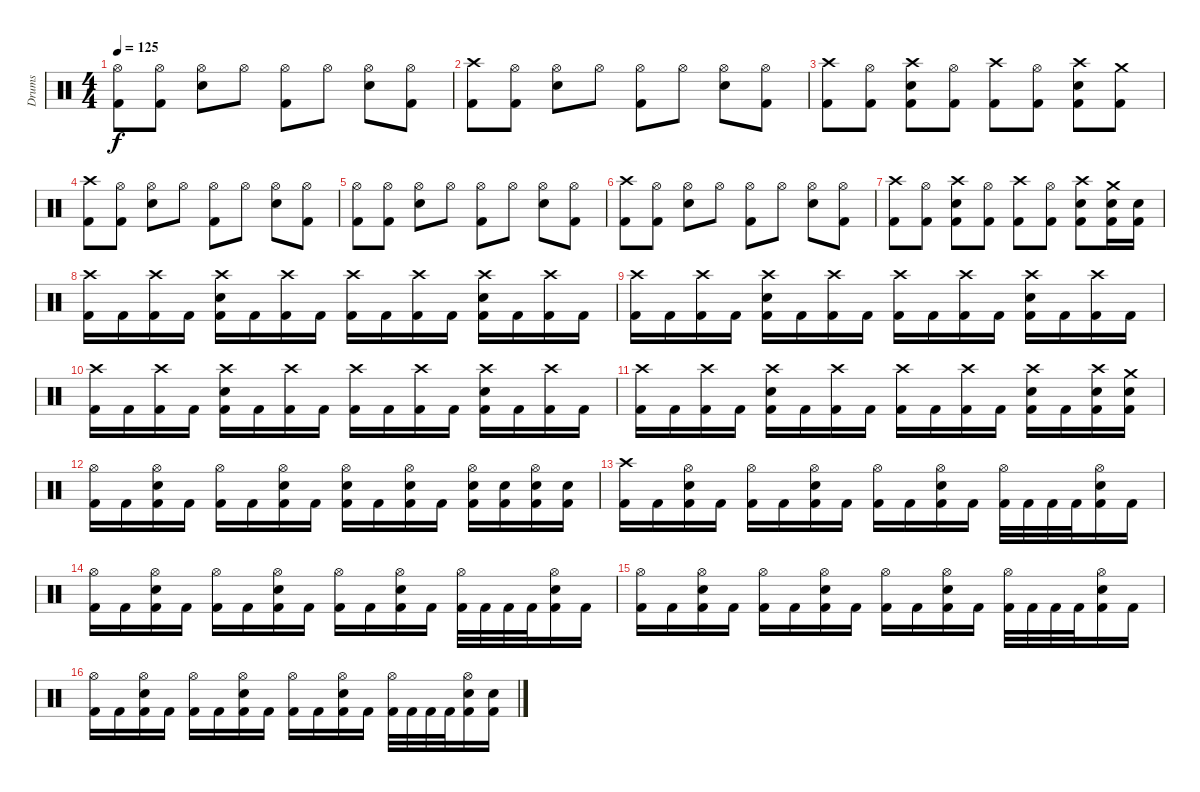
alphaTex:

\track ("Drums" "Drums") {instrument percussion}
\staff {score}
\articulation defaults
\ts (4 4)
\tempo 125
\clef neutral
\ks c
("Hi-Hat (open)" "Kick (hit) 2").8{dy f} ("Hi-Hat (open)" "Kick (hit) 2").8 ("Hi-Hat (open)" "Electric Snare (hit)").8 "Hi-Hat (open)".8 ("Hi-Hat (open)" "Kick (hit) 2").8 "Hi-Hat (open)".8 ("Hi-Hat (open)" "Electric Snare (hit)").8 ("Hi-Hat (open)" "Kick (hit) 2").8 |
("Crash high (hit)" "Kick (hit) 2").8 ("Hi-Hat (open)" "Kick (hit) 2").8 ("Hi-Hat (open)" "Electric Snare (hit)").8 "Hi-Hat (open)".8 ("Hi-Hat (open)" "Kick (hit) 2").8 "Hi-Hat (open)".8 ("Hi-Hat (open)" "Electric Snare (hit)").8 ("Hi-Hat (open)" "Kick (hit) 2").8 |
("Crash high (hit)" "Kick (hit) 2").8 ("Hi-Hat (open)" "Kick (hit) 2").8 ("Crash high (hit)" "Electric Snare (hit)" "Kick (hit) 2").8 ("Hi-Hat (open)" "Kick (hit) 2").8 ("Crash high (hit)" "Kick (hit) 2").8 ("Hi-Hat (open)" "Kick (hit) 2").8 ("Crash high (hit)" "Electric Snare (hit)" "Kick (hit) 2").8 ("Crash medium (hit)" "Kick (hit) 2").8 |
("Crash high (hit)" "Kick (hit) 2").8 ("Hi-Hat (open)" "Kick (hit) 2").8 ("Hi-Hat (open)" "Electric Snare (hit)").8 "Hi-Hat (open)".8 ("Hi-Hat (open)" "Kick (hit) 2").8 "Hi-Hat (open)".8 ("Hi-Hat (open)" "Electric Snare (hit)").8 ("Hi-Hat (open)" "Kick (hit) 2").8 |
("Hi-Hat (open)" "Kick (hit) 2").8 ("Hi-Hat (open)" "Kick (hit) 2").8 ("Hi-Hat (open)" "Electric Snare (hit)").8 "Hi-Hat (open)".8 ("Hi-Hat (open)" "Kick (hit) 2").8 "Hi-Hat (open)".8 ("Hi-Hat (open)" "Electric Snare (hit)").8 ("Hi-Hat (open)" "Kick (hit) 2").8 |
("Crash high (hit)" "Kick (hit) 2").8 ("Hi-Hat (open)" "Kick (hit) 2").8 ("Hi-Hat (open)" "Electric Snare (hit)").8 "Hi-Hat (open)".8 ("Hi-Hat (open)" "Kick (hit) 2").8 "Hi-Hat (open)".8 ("Hi-Hat (open)" "Electric Snare (hit)").8 ("Hi-Hat (open)" "Kick (hit) 2").8 |
("Crash high (hit)" "Kick (hit) 2").8 ("Hi-Hat (open)" "Kick (hit) 2").8 ("Crash high (hit)" "Electric Snare (hit)" "Kick (hit) 2").8 ("Hi-Hat (open)" "Kick (hit) 2").8 ("Crash high (hit)" "Kick (hit) 2").8 ("Hi-Hat (open)" "Kick (hit) 2").8 ("Crash high (hit)" "Electric Snare (hit)" "Kick (hit) 2").8 ("Crash medium (hit)" "Electric Snare (hit)" "Kick (hit) 2").16 ("Electric Snare (hit)" "Kick (hit) 2").16 |
("Crash high (hit)" "Kick (hit) 2").16 "Kick (hit) 2".16 ("Crash high (hit)" "Kick (hit) 2").16 "Kick (hit) 2".16 ("Crash high (hit)" "Electric Snare (hit)" "Kick (hit) 2").16 "Kick (hit) 2".16 ("Crash high (hit)" "Kick (hit) 2").16 "Kick (hit) 2".16 ("Crash high (hit)" "Kick (hit) 2").16 "Kick (hit) 2".16 ("Crash high (hit)" "Kick (hit) 2").16 "Kick (hit) 2".16 ("Crash high (hit)" "Electric Snare (hit)" "Kick (hit) 2").16 "Kick (hit) 2".16 ("Crash high (hit)" "Kick (hit) 2").16 "Kick (hit) 2".16 |
("Crash high (hit)" "Kick (hit) 2").16 "Kick (hit) 2".16 ("Crash high (hit)" "Kick (hit) 2").16 "Kick (hit) 2".16 ("Crash high (hit)" "Electric Snare (hit)" "Kick (hit) 2").16 "Kick (hit) 2".16 ("Crash high (hit)" "Kick (hit) 2").16 "Kick (hit) 2".16 ("Crash high (hit)" "Kick (hit) 2").16 "Kick (hit) 2".16 ("Crash high (hit)" "Kick (hit) 2").16 "Kick (hit) 2".16 ("Crash high (hit)" "Electric Snare (hit)" "Kick (hit) 2").16 "Kick (hit) 2".16 ("Crash high (hit)" "Kick (hit) 2").16 "Kick (hit) 2".16 |
("Crash high (hit)" "Kick (hit) 2").16 "Kick (hit) 2".16 ("Crash high (hit)" "Kick (hit) 2").16 "Kick (hit) 2".16 ("Crash high (hit)" "Electric Snare (hit)" "Kick (hit) 2").16 "Kick (hit) 2".16 ("Crash high (hit)" "Kick (hit) 2").16 "Kick (hit) 2".16 ("Crash high (hit)" "Kick (hit) 2").16 "Kick (hit) 2".16 ("Crash high (hit)" "Kick (hit) 2").16 "Kick (hit) 2".16 ("Crash high (hit)" "Electric Snare (hit)" "Kick (hit) 2").16 "Kick (hit) 2".16 ("Crash high (hit)" "Kick (hit) 2").16 "Kick (hit) 2".16 |
("Crash high (hit)" "Kick (hit) 2").16 "Kick (hit) 2".16 ("Crash high (hit)" "Kick (hit) 2").16 "Kick (hit) 2".16 ("Crash high (hit)" "Electric Snare (hit)" "Kick (hit) 2").16 "Kick (hit) 2".16 ("Crash high (hit)" "Kick (hit) 2").16 "Kick (hit) 2".16 ("Crash high (hit)" "Kick (hit) 2").16 "Kick (hit) 2".16 ("Crash high (hit)" "Kick (hit) 2").16 "Kick (hit) 2".16 ("Crash high (hit)" "Electric Snare (hit)" "Kick (hit) 2").16 "Kick (hit) 2".16 ("Crash high (hit)" "Electric Snare (hit)" "Kick (hit) 2").16 ("Crash medium (hit)" "Electric Snare (hit)" "Kick (hit) 2").16 |
("Hi-Hat (open)" "Kick (hit) 2").16 "Kick (hit) 2".16 ("Hi-Hat (open)" "Electric Snare (hit)" "Kick (hit) 2").16 "Kick (hit) 2".16 ("Hi-Hat (open)" "Kick (hit) 2").16 "Kick (hit) 2".16 ("Hi-Hat (open)" "Electric Snare (hit)" "Kick (hit) 2").16 "Kick (hit) 2".16 ("Hi-Hat (open)" "Electric Snare (hit)" "Kick (hit) 2").16 "Kick (hit) 2".16 ("Hi-Hat (open)" "Electric Snare (hit)" "Kick (hit) 2").16 "Kick (hit) 2".16 ("Hi-Hat (open)" "Electric Snare (hit)" "Kick (hit) 2").16 ("Electric Snare (hit)" "Kick (hit) 2").16 ("Hi-Hat (open)" "Electric Snare (hit)" "Kick (hit) 2").16 ("Electric Snare (hit)" "Kick (hit) 2").16 |
("Crash high (hit)" "Kick (hit) 2").16 "Kick (hit) 2".16 ("Hi-Hat (open)" "Electric Snare (hit)" "Kick (hit) 2").16 "Kick (hit) 2".16 ("Hi-Hat (open)" "Kick (hit) 2").16 "Kick (hit) 2".16 ("Hi-Hat (open)" "Electric Snare (hit)" "Kick (hit) 2").16 "Kick (hit) 2".16 ("Hi-Hat (open)" "Kick (hit) 2").16 "Kick (hit) 2".16 ("Hi-Hat (open)" "Electric Snare (hit)" "Kick (hit) 2").16 "Kick (hit) 2".16 ("Hi-Hat (open)" "Kick (hit) 2").32 "Kick (hit) 2".32 "Kick (hit) 2".32 "Kick (hit) 2".32 ("Hi-Hat (open)" "Electric Snare (hit)" "Kick (hit) 2").16 "Kick (hit) 2".16 |
("Hi-Hat (open)" "Kick (hit) 2").16 "Kick (hit) 2".16 ("Hi-Hat (open)" "Electric Snare (hit)" "Kick (hit) 2").16 "Kick (hit) 2".16 ("Hi-Hat (open)" "Kick (hit) 2").16 "Kick (hit) 2".16 ("Hi-Hat (open)" "Electric Snare (hit)" "Kick (hit) 2").16 "Kick (hit) 2".16 ("Hi-Hat (open)" "Kick (hit) 2").16 "Kick (hit) 2".16 ("Hi-Hat (open)" "Electric Snare (hit)" "Kick (hit) 2").16 "Kick (hit) 2".16 ("Hi-Hat (open)" "Kick (hit) 2").32 "Kick (hit) 2".32 "Kick (hit) 2".32 "Kick (hit) 2".32 ("Hi-Hat (open)" "Electric Snare (hit)" "Kick (hit) 2").16 "Kick (hit) 2".16 |
("Hi-Hat (open)" "Kick (hit) 2").16 "Kick (hit) 2".16 ("Hi-Hat (open)" "Electric Snare (hit)" "Kick (hit) 2").16 "Kick (hit) 2".16 ("Hi-Hat (open)" "Kick (hit) 2").16 "Kick (hit) 2".16 ("Hi-Hat (open)" "Electric Snare (hit)" "Kick (hit) 2").16 "Kick (hit) 2".16 ("Hi-Hat (open)" "Kick (hit) 2").16 "Kick (hit) 2".16 ("Hi-Hat (open)" "Electric Snare (hit)" "Kick (hit) 2").16 "Kick (hit) 2".16 ("Hi-Hat (open)" "Kick (hit) 2").32 "Kick (hit) 2".32 "Kick (hit) 2".32 "Kick (hit) 2".32 ("Hi-Hat (open)" "Electric Snare (hit)" "Kick (hit) 2").16 "Kick (hit) 2".16 |
("Hi-Hat (open)" "Kick (hit) 2").16 "Kick (hit) 2".16 ("Hi-Hat (open)" "Electric Snare (hit)" "Kick (hit) 2").16 "Kick (hit) 2".16 ("Hi-Hat (open)" "Kick (hit) 2").16 "Kick (hit) 2".16 ("Hi-Hat (open)" "Electric Snare (hit)" "Kick (hit) 2").16 "Kick (hit) 2".16 ("Hi-Hat (open)" "Kick (hit) 2").16 "Kick (hit) 2".16 ("Hi-Hat (open)" "Electric Snare (hit)" "Kick (hit) 2").16 "Kick (hit) 2".16 ("Hi-Hat (open)" "Kick (hit) 2").32 "Kick (hit) 2".32 "Kick (hit) 2".32 "Kick (hit) 2".32 ("Hi-Hat (open)" "Electric Snare (hit)" "Kick (hit) 2").16 ("Electric Snare (hit)" "Kick (hit) 2").16
